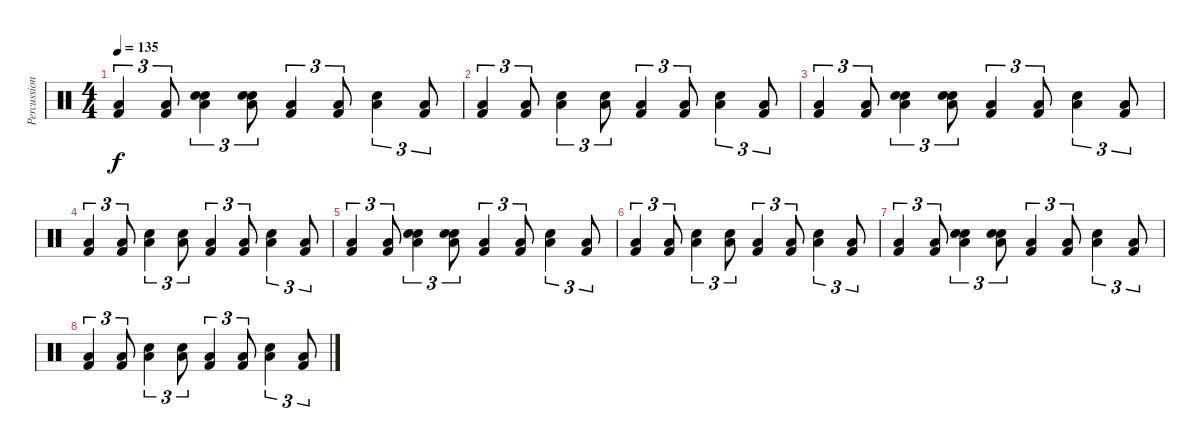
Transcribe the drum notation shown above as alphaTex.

\track ("Percussion" "Percussion") {instrument percussion}
\staff {score}
\articulation defaults
\ts (4 4)
\tempo 135
\clef neutral
\ks c
("Low Floor Tom (hit)" "Kick (hit) 2").4{tu (3 2) dy f} ("Low Floor Tom (hit)" "Kick (hit) 2").8{tu (3 2)} ("Hand Clap (hit)" "Low Floor Tom (hit)" "Electric Snare (hit)").4{tu (3 2)} ("Hand Clap (hit)" "Low Floor Tom (hit)" "Electric Snare (hit)").8{tu (3 2)} ("Low Floor Tom (hit)" "Kick (hit) 2").4{tu (3 2)} ("Low Floor Tom (hit)" "Kick (hit) 2").8{tu (3 2)} ("Low Floor Tom (hit)" "Electric Snare (hit)").4{tu (3 2)} ("Low Floor Tom (hit)" "Kick (hit) 2").8{tu (3 2)} |
("Low Floor Tom (hit)" "Kick (hit) 2").4{tu (3 2)} ("Low Floor Tom (hit)" "Kick (hit) 2").8{tu (3 2)} ("Low Floor Tom (hit)" "Electric Snare (hit)").4{tu (3 2)} ("Low Floor Tom (hit)" "Electric Snare (hit)").8{tu (3 2)} ("Low Floor Tom (hit)" "Kick (hit) 2").4{tu (3 2)} ("Low Floor Tom (hit)" "Kick (hit) 2").8{tu (3 2)} ("Low Floor Tom (hit)" "Electric Snare (hit)").4{tu (3 2)} ("Low Floor Tom (hit)" "Kick (hit) 2").8{tu (3 2)} |
("Low Floor Tom (hit)" "Kick (hit) 2").4{tu (3 2)} ("Low Floor Tom (hit)" "Kick (hit) 2").8{tu (3 2)} ("Hand Clap (hit)" "Low Floor Tom (hit)" "Electric Snare (hit)").4{tu (3 2)} ("Hand Clap (hit)" "Low Floor Tom (hit)" "Electric Snare (hit)").8{tu (3 2)} ("Low Floor Tom (hit)" "Kick (hit) 2").4{tu (3 2)} ("Low Floor Tom (hit)" "Kick (hit) 2").8{tu (3 2)} ("Low Floor Tom (hit)" "Electric Snare (hit)").4{tu (3 2)} ("Low Floor Tom (hit)" "Kick (hit) 2").8{tu (3 2)} |
("Low Floor Tom (hit)" "Kick (hit) 2").4{tu (3 2)} ("Low Floor Tom (hit)" "Kick (hit) 2").8{tu (3 2)} ("Low Floor Tom (hit)" "Electric Snare (hit)").4{tu (3 2)} ("Low Floor Tom (hit)" "Electric Snare (hit)").8{tu (3 2)} ("Low Floor Tom (hit)" "Kick (hit) 2").4{tu (3 2)} ("Low Floor Tom (hit)" "Kick (hit) 2").8{tu (3 2)} ("Low Floor Tom (hit)" "Electric Snare (hit)").4{tu (3 2)} ("Low Floor Tom (hit)" "Kick (hit) 2").8{tu (3 2)} |
("Low Floor Tom (hit)" "Kick (hit) 2").4{tu (3 2)} ("Low Floor Tom (hit)" "Kick (hit) 2").8{tu (3 2)} ("Hand Clap (hit)" "Low Floor Tom (hit)" "Electric Snare (hit)").4{tu (3 2)} ("Hand Clap (hit)" "Low Floor Tom (hit)" "Electric Snare (hit)").8{tu (3 2)} ("Low Floor Tom (hit)" "Kick (hit) 2").4{tu (3 2)} ("Low Floor Tom (hit)" "Kick (hit) 2").8{tu (3 2)} ("Low Floor Tom (hit)" "Electric Snare (hit)").4{tu (3 2)} ("Low Floor Tom (hit)" "Kick (hit) 2").8{tu (3 2)} |
("Low Floor Tom (hit)" "Kick (hit) 2").4{tu (3 2)} ("Low Floor Tom (hit)" "Kick (hit) 2").8{tu (3 2)} ("Low Floor Tom (hit)" "Electric Snare (hit)").4{tu (3 2)} ("Low Floor Tom (hit)" "Electric Snare (hit)").8{tu (3 2)} ("Low Floor Tom (hit)" "Kick (hit) 2").4{tu (3 2)} ("Low Floor Tom (hit)" "Kick (hit) 2").8{tu (3 2)} ("Low Floor Tom (hit)" "Electric Snare (hit)").4{tu (3 2)} ("Low Floor Tom (hit)" "Kick (hit) 2").8{tu (3 2)} |
("Low Floor Tom (hit)" "Kick (hit) 2").4{tu (3 2)} ("Low Floor Tom (hit)" "Kick (hit) 2").8{tu (3 2)} ("Hand Clap (hit)" "Low Floor Tom (hit)" "Electric Snare (hit)").4{tu (3 2)} ("Hand Clap (hit)" "Low Floor Tom (hit)" "Electric Snare (hit)").8{tu (3 2)} ("Low Floor Tom (hit)" "Kick (hit) 2").4{tu (3 2)} ("Low Floor Tom (hit)" "Kick (hit) 2").8{tu (3 2)} ("Low Floor Tom (hit)" "Electric Snare (hit)").4{tu (3 2)} ("Low Floor Tom (hit)" "Kick (hit) 2").8{tu (3 2)} |
("Low Floor Tom (hit)" "Kick (hit) 2").4{tu (3 2)} ("Low Floor Tom (hit)" "Kick (hit) 2").8{tu (3 2)} ("Low Floor Tom (hit)" "Electric Snare (hit)").4{tu (3 2)} ("Low Floor Tom (hit)" "Electric Snare (hit)").8{tu (3 2)} ("Low Floor Tom (hit)" "Kick (hit) 2").4{tu (3 2)} ("Low Floor Tom (hit)" "Kick (hit) 2").8{tu (3 2)} ("Low Floor Tom (hit)" "Electric Snare (hit)").4{tu (3 2)} ("Low Floor Tom (hit)" "Kick (hit) 2").8{tu (3 2)}
